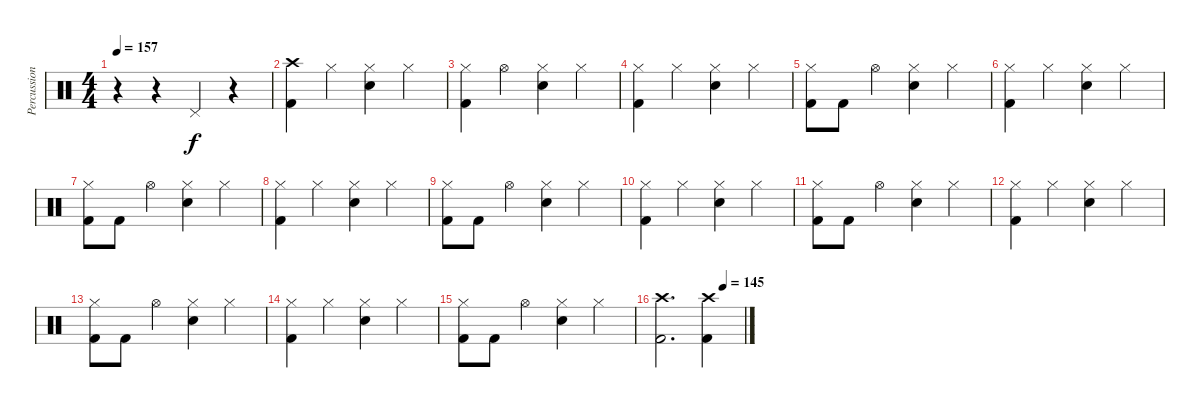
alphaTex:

\track ("Percussion" "Percussion") {instrument percussion}
\staff {score}
\articulation defaults
\ts (4 4)
\tempo 157
\clef neutral
\ks c
r.4{dy f} r.4 "Pedal Hi-Hat (hit)".4 r.4 |
("Crash high (hit)" "Kick (hit) 2").4 "Hi-Hat (closed)".4 ("Hi-Hat (closed)" "Snare (hit) 2").4 "Hi-Hat (closed)".4 |
("Hi-Hat (closed)" "Kick (hit) 2").4 "Hi-Hat (open)".4 ("Hi-Hat (closed)" "Snare (hit) 2").4 "Hi-Hat (closed)".4 |
("Hi-Hat (closed)" "Kick (hit) 2").4 "Hi-Hat (closed)".4 ("Hi-Hat (closed)" "Snare (hit) 2").4 "Hi-Hat (closed)".4 |
("Hi-Hat (closed)" "Kick (hit) 2").8 "Kick (hit) 2".8 "Hi-Hat (open)".4 ("Hi-Hat (closed)" "Snare (hit) 2").4 "Hi-Hat (closed)".4 |
("Hi-Hat (closed)" "Kick (hit) 2").4 "Hi-Hat (closed)".4 ("Hi-Hat (closed)" "Snare (hit) 2").4 "Hi-Hat (closed)".4 |
("Hi-Hat (closed)" "Kick (hit) 2").8 "Kick (hit) 2".8 "Hi-Hat (open)".4 ("Hi-Hat (closed)" "Snare (hit) 2").4 "Hi-Hat (closed)".4 |
("Hi-Hat (closed)" "Kick (hit) 2").4 "Hi-Hat (closed)".4 ("Hi-Hat (closed)" "Snare (hit) 2").4 "Hi-Hat (closed)".4 |
("Hi-Hat (closed)" "Kick (hit) 2").8 "Kick (hit) 2".8 "Hi-Hat (open)".4 ("Hi-Hat (closed)" "Snare (hit) 2").4 "Hi-Hat (closed)".4 |
("Hi-Hat (closed)" "Kick (hit) 2").4 "Hi-Hat (closed)".4 ("Hi-Hat (closed)" "Snare (hit) 2").4 "Hi-Hat (closed)".4 |
("Hi-Hat (closed)" "Kick (hit) 2").8 "Kick (hit) 2".8 "Hi-Hat (open)".4 ("Hi-Hat (closed)" "Snare (hit) 2").4 "Hi-Hat (closed)".4 |
("Hi-Hat (closed)" "Kick (hit) 2").4 "Hi-Hat (closed)".4 ("Hi-Hat (closed)" "Snare (hit) 2").4 "Hi-Hat (closed)".4 |
("Hi-Hat (closed)" "Kick (hit) 2").8 "Kick (hit) 2".8 "Hi-Hat (open)".4 ("Hi-Hat (closed)" "Snare (hit) 2").4 "Hi-Hat (closed)".4 |
("Hi-Hat (closed)" "Kick (hit) 2").4 "Hi-Hat (closed)".4 ("Hi-Hat (closed)" "Snare (hit) 2").4 "Hi-Hat (closed)".4 |
("Hi-Hat (closed)" "Kick (hit) 2").8 "Kick (hit) 2".8 "Hi-Hat (open)".4 ("Hi-Hat (closed)" "Snare (hit) 2").4 "Hi-Hat (closed)".4 |
\tempo (145 0.75)
("Crash high (hit)" "Kick (hit) 2").2{d} ("Crash high (hit)" "Kick (hit) 2").4
